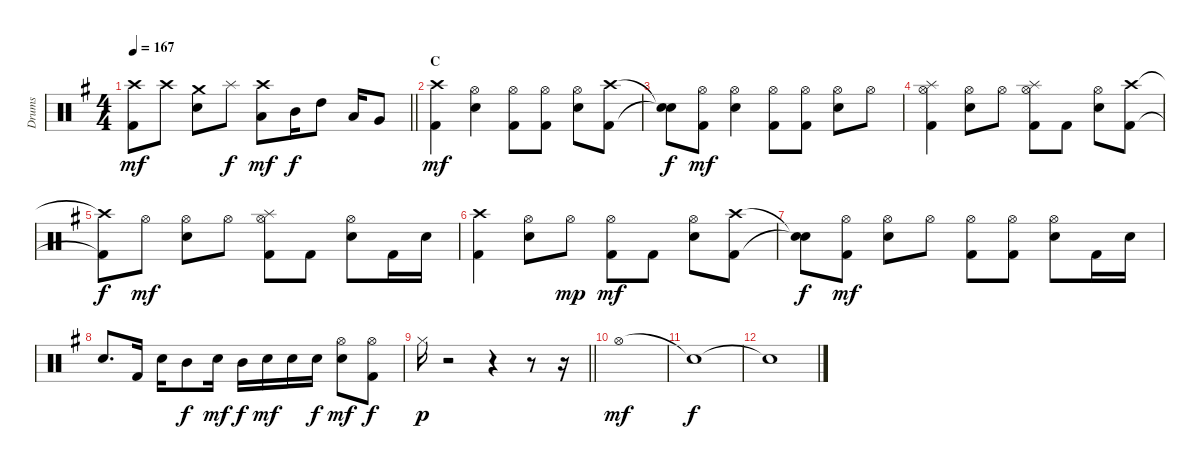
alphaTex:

\track ("Drums" "Drums") {instrument percussion}
\staff {score}
\articulation defaults
\ts (4 4)
\tempo 167
\clef neutral
\barLineRight lightlight
\ks g
("Crash high (hit)" "Kick (hit) 2").8{dy mf} "Crash high (hit)".8 ("Crash medium (hit)" "Electric Snare (hit)").8 "Splash (hit)".8{dy f} ("Crash high (hit)" "Low Tom (hit)").8{dy mf} "Mid Tom (hit)".16{dy f} "High Tom (hit)".8 "Low Tom (hit)".16 "Very Low Tom (hit)".8 |
\section ("" "C")
("Crash high (hit)" "Kick (hit) 2").4{dy mf} ("Hi-Hat (open)" "Electric Snare (hit)").4 ("Hi-Hat (open)" "Kick (hit) 2").8 ("Hi-Hat (open)" "Kick (hit) 2").8 ("Hi-Hat (open)" "Electric Snare (hit)").8 ("Crash high (hit)" "Kick (hit) 2").8 |
("Snare (hit)"{t} "Snare (hit)"{t}).8{dy f} ("Hi-Hat (open)" "Kick (hit) 2").8{dy mf} ("Hi-Hat (open)" "Electric Snare (hit)").4 ("Hi-Hat (open)" "Kick (hit) 2").8 ("Hi-Hat (open)" "Kick (hit) 2").8 ("Hi-Hat (open)" "Electric Snare (hit)").8 "Hi-Hat (open)".8 |
("Splash (hit)" "Hi-Hat (open)" "Kick (hit) 2").4 ("Hi-Hat (open)" "Electric Snare (hit)").8 "Hi-Hat (open)".8 ("Splash (hit)" "Hi-Hat (open)" "Kick (hit) 2").8 "Kick (hit) 2".8 ("Hi-Hat (open)" "Electric Snare (hit)").8 ("Crash high (hit)" "Kick (hit) 2").8 |
("Crash high (hit)"{t} "Kick (hit) 2"{t}).8{dy f} "Hi-Hat (open)".8{dy mf} ("Hi-Hat (open)" "Electric Snare (hit)").8 "Hi-Hat (open)".8 ("Splash (hit)" "Hi-Hat (open)" "Kick (hit) 2").8 "Kick (hit) 2".8 ("Hi-Hat (open)" "Electric Snare (hit)").8 "Kick (hit) 2".16 "Electric Snare (hit)".16 |
("Crash high (hit)" "Kick (hit) 2").4 ("Hi-Hat (open)" "Electric Snare (hit)").8 "Hi-Hat (open)".8{dy mp} ("Hi-Hat (open)" "Kick (hit) 2").8{dy mf} "Kick (hit) 2".8 ("Hi-Hat (open)" "Electric Snare (hit)").8 ("Crash high (hit)" "Kick (hit) 2").8 |
("Snare (hit)"{t} "Snare (hit)"{t}).8{dy f} ("Hi-Hat (open)" "Kick (hit) 2").8{dy mf} ("Hi-Hat (open)" "Electric Snare (hit)").8 "Hi-Hat (open)".8 ("Hi-Hat (open)" "Kick (hit) 2").8 ("Hi-Hat (open)" "Kick (hit) 2").8 ("Hi-Hat (open)" "Electric Snare (hit)").8 "Kick (hit) 2".16 "Electric Snare (hit)".16 |
"Electric Snare (hit)".8{d} "Kick (hit) 2".16 "Electric Snare (hit)".16 "Mid Tom (hit)".8{dy f} "Electric Snare (hit)".16{dy mf} "Mid Tom (hit)".16{dy f} "Electric Snare (hit)".16{dy mf} "Electric Snare (hit)".16 "Electric Snare (hit)".16{dy f} ("Hi-Hat (open)" "Electric Snare (hit)").8{dy mf} ("Hi-Hat (open)" "Kick (hit) 2").8{dy f} |
\barLineRight lightlight "Hi-Hat (closed)".16{dy p}
r.2 r.4 r.8 r.16 |
"Hi-Hat (open)".1{dy mf} |
"Snare (hit)"{t}.1{dy f} |
"Snare (hit)"{t}.1
